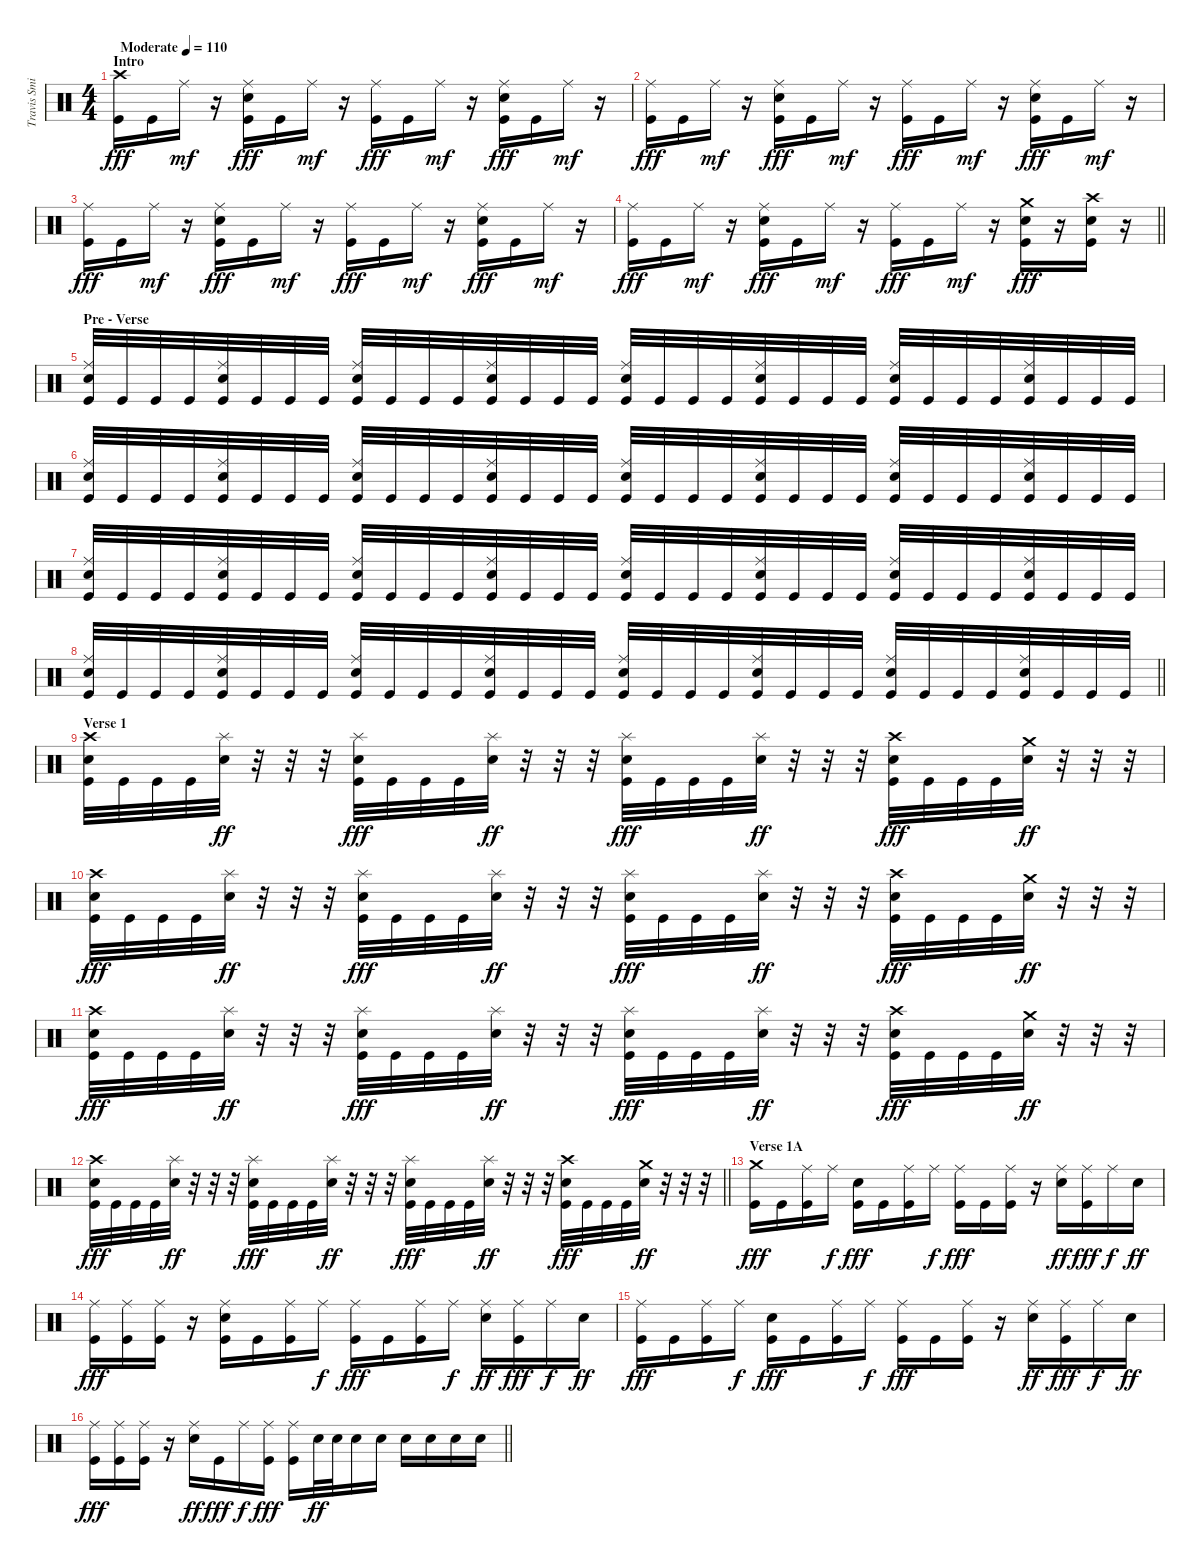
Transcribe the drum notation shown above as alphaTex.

\track ("Travis Smith" "Travis Smi") {instrument percussion}
\staff {score}
\articulation defaults
\ts (4 4)
\section ("" "Intro")
\tempo (110 "Moderate")
\clef neutral
\ks c
("Crash high (hit)" "Kick (hit)").16{dy fff} "Kick (hit)".16 "Ride (middle)".16{dy mf} r.16 ("Ride (middle)" "Electric Snare (hit)" "Kick (hit)").16{dy fff} "Kick (hit)".16 "Ride (middle)".16{dy mf} r.16 ("Ride (middle)" "Kick (hit)").16{dy fff} "Kick (hit)".16 "Ride (middle)".16{dy mf} r.16 ("Ride (middle)" "Electric Snare (hit)" "Kick (hit)").16{dy fff} "Kick (hit)".16 "Ride (middle)".16{dy mf} r.16 |
("Ride (middle)" "Kick (hit)").16{dy fff} "Kick (hit)".16 "Ride (middle)".16{dy mf} r.16 ("Ride (middle)" "Electric Snare (hit)" "Kick (hit)").16{dy fff} "Kick (hit)".16 "Ride (middle)".16{dy mf} r.16 ("Ride (middle)" "Kick (hit)").16{dy fff} "Kick (hit)".16 "Ride (middle)".16{dy mf} r.16 ("Ride (middle)" "Electric Snare (hit)" "Kick (hit)").16{dy fff} "Kick (hit)".16 "Ride (middle)".16{dy mf} r.16 |
("Ride (middle)" "Kick (hit)").16{dy fff} "Kick (hit)".16 "Ride (middle)".16{dy mf} r.16 ("Ride (middle)" "Electric Snare (hit)" "Kick (hit)").16{dy fff} "Kick (hit)".16 "Ride (middle)".16{dy mf} r.16 ("Ride (middle)" "Kick (hit)").16{dy fff} "Kick (hit)".16 "Ride (middle)".16{dy mf} r.16 ("Ride (middle)" "Electric Snare (hit)" "Kick (hit)").16{dy fff} "Kick (hit)".16 "Ride (middle)".16{dy mf} r.16 |
\barLineRight lightlight
("Ride (middle)" "Kick (hit)").16{dy fff} "Kick (hit)".16 "Ride (middle)".16{dy mf} r.16 ("Ride (middle)" "Electric Snare (hit)" "Kick (hit)").16{dy fff} "Kick (hit)".16 "Ride (middle)".16{dy mf} r.16 ("Ride (middle)" "Kick (hit)").16{dy fff} "Kick (hit)".16 "Ride (middle)".16{dy mf} r.16 ("Crash medium (hit)" "Electric Snare (hit)" "Kick (hit)").16{dy fff} r.16 ("Crash high (hit)" "Electric Snare (hit)" "Kick (hit)").16 r.16 |
\section ("" "Pre - Verse")
("Ride (middle)" "Electric Snare (hit)" "Kick (hit)").32 "Kick (hit)".32 "Kick (hit)".32 "Kick (hit)".32 ("Ride (middle)" "Electric Snare (hit)" "Kick (hit)").32 "Kick (hit)".32 "Kick (hit)".32 "Kick (hit)".32 ("Ride (middle)" "Electric Snare (hit)" "Kick (hit)").32 "Kick (hit)".32 "Kick (hit)".32 "Kick (hit)".32 ("Ride (middle)" "Electric Snare (hit)" "Kick (hit)").32 "Kick (hit)".32 "Kick (hit)".32 "Kick (hit)".32 ("Ride (middle)" "Electric Snare (hit)" "Kick (hit)").32 "Kick (hit)".32 "Kick (hit)".32 "Kick (hit)".32 ("Ride (middle)" "Electric Snare (hit)" "Kick (hit)").32 "Kick (hit)".32 "Kick (hit)".32 "Kick (hit)".32 ("Ride (middle)" "Electric Snare (hit)" "Kick (hit)").32 "Kick (hit)".32 "Kick (hit)".32 "Kick (hit)".32 ("Ride (middle)" "Electric Snare (hit)" "Kick (hit)").32 "Kick (hit)".32 "Kick (hit)".32 "Kick (hit)".32 |
("Ride (middle)" "Electric Snare (hit)" "Kick (hit)").32 "Kick (hit)".32 "Kick (hit)".32 "Kick (hit)".32 ("Ride (middle)" "Electric Snare (hit)" "Kick (hit)").32 "Kick (hit)".32 "Kick (hit)".32 "Kick (hit)".32 ("Ride (middle)" "Electric Snare (hit)" "Kick (hit)").32 "Kick (hit)".32 "Kick (hit)".32 "Kick (hit)".32 ("Ride (middle)" "Electric Snare (hit)" "Kick (hit)").32 "Kick (hit)".32 "Kick (hit)".32 "Kick (hit)".32 ("Ride (middle)" "Electric Snare (hit)" "Kick (hit)").32 "Kick (hit)".32 "Kick (hit)".32 "Kick (hit)".32 ("Ride (middle)" "Electric Snare (hit)" "Kick (hit)").32 "Kick (hit)".32 "Kick (hit)".32 "Kick (hit)".32 ("Ride (middle)" "Electric Snare (hit)" "Kick (hit)").32 "Kick (hit)".32 "Kick (hit)".32 "Kick (hit)".32 ("Ride (middle)" "Electric Snare (hit)" "Kick (hit)").32 "Kick (hit)".32 "Kick (hit)".32 "Kick (hit)".32 |
("Ride (middle)" "Electric Snare (hit)" "Kick (hit)").32 "Kick (hit)".32 "Kick (hit)".32 "Kick (hit)".32 ("Ride (middle)" "Electric Snare (hit)" "Kick (hit)").32 "Kick (hit)".32 "Kick (hit)".32 "Kick (hit)".32 ("Ride (middle)" "Electric Snare (hit)" "Kick (hit)").32 "Kick (hit)".32 "Kick (hit)".32 "Kick (hit)".32 ("Ride (middle)" "Electric Snare (hit)" "Kick (hit)").32 "Kick (hit)".32 "Kick (hit)".32 "Kick (hit)".32 ("Ride (middle)" "Electric Snare (hit)" "Kick (hit)").32 "Kick (hit)".32 "Kick (hit)".32 "Kick (hit)".32 ("Ride (middle)" "Electric Snare (hit)" "Kick (hit)").32 "Kick (hit)".32 "Kick (hit)".32 "Kick (hit)".32 ("Ride (middle)" "Electric Snare (hit)" "Kick (hit)").32 "Kick (hit)".32 "Kick (hit)".32 "Kick (hit)".32 ("Ride (middle)" "Electric Snare (hit)" "Kick (hit)").32 "Kick (hit)".32 "Kick (hit)".32 "Kick (hit)".32 |
\barLineRight lightlight
("Ride (middle)" "Electric Snare (hit)" "Kick (hit)").32 "Kick (hit)".32 "Kick (hit)".32 "Kick (hit)".32 ("Ride (middle)" "Electric Snare (hit)" "Kick (hit)").32 "Kick (hit)".32 "Kick (hit)".32 "Kick (hit)".32 ("Ride (middle)" "Electric Snare (hit)" "Kick (hit)").32 "Kick (hit)".32 "Kick (hit)".32 "Kick (hit)".32 ("Ride (middle)" "Electric Snare (hit)" "Kick (hit)").32 "Kick (hit)".32 "Kick (hit)".32 "Kick (hit)".32 ("Ride (middle)" "Electric Snare (hit)" "Kick (hit)").32 "Kick (hit)".32 "Kick (hit)".32 "Kick (hit)".32 ("Ride (middle)" "Electric Snare (hit)" "Kick (hit)").32 "Kick (hit)".32 "Kick (hit)".32 "Kick (hit)".32 ("Ride (middle)" "Electric Snare (hit)" "Kick (hit)").32 "Kick (hit)".32 "Kick (hit)".32 "Kick (hit)".32 ("Ride (middle)" "Electric Snare (hit)" "Kick (hit)").32 "Kick (hit)".32 "Kick (hit)".32 "Kick (hit)".32 |
\section ("" "Verse 1")
("Crash high (hit)" "Electric Snare (hit)" "Kick (hit)").32 "Kick (hit)".32 "Kick (hit)".32 "Kick (hit)".32 ("Splash (hit)" "Electric Snare (hit)").32{dy ff} r.32 r.32 r.32 ("Splash (hit)" "Electric Snare (hit)" "Kick (hit)").32{dy fff} "Kick (hit)".32 "Kick (hit)".32 "Kick (hit)".32 ("Splash (hit)" "Electric Snare (hit)").32{dy ff} r.32 r.32 r.32 ("Splash (hit)" "Electric Snare (hit)" "Kick (hit)").32{dy fff} "Kick (hit)".32 "Kick (hit)".32 "Kick (hit)".32 ("Splash (hit)" "Electric Snare (hit)").32{dy ff} r.32 r.32 r.32 ("Crash high (hit)" "Electric Snare (hit)" "Kick (hit)").32{dy fff} "Kick (hit)".32 "Kick (hit)".32 "Kick (hit)".32 ("Crash medium (hit)" "Electric Snare (hit)").32{dy ff} r.32 r.32 r.32 |
("Crash high (hit)" "Electric Snare (hit)" "Kick (hit)").32{dy fff} "Kick (hit)".32 "Kick (hit)".32 "Kick (hit)".32 ("Splash (hit)" "Electric Snare (hit)").32{dy ff} r.32 r.32 r.32 ("Splash (hit)" "Electric Snare (hit)" "Kick (hit)").32{dy fff} "Kick (hit)".32 "Kick (hit)".32 "Kick (hit)".32 ("Splash (hit)" "Electric Snare (hit)").32{dy ff} r.32 r.32 r.32 ("Splash (hit)" "Electric Snare (hit)" "Kick (hit)").32{dy fff} "Kick (hit)".32 "Kick (hit)".32 "Kick (hit)".32 ("Splash (hit)" "Electric Snare (hit)").32{dy ff} r.32 r.32 r.32 ("Crash high (hit)" "Electric Snare (hit)" "Kick (hit)").32{dy fff} "Kick (hit)".32 "Kick (hit)".32 "Kick (hit)".32 ("Crash medium (hit)" "Electric Snare (hit)").32{dy ff} r.32 r.32 r.32 |
("Crash high (hit)" "Electric Snare (hit)" "Kick (hit)").32{dy fff} "Kick (hit)".32 "Kick (hit)".32 "Kick (hit)".32 ("Splash (hit)" "Electric Snare (hit)").32{dy ff} r.32 r.32 r.32 ("Splash (hit)" "Electric Snare (hit)" "Kick (hit)").32{dy fff} "Kick (hit)".32 "Kick (hit)".32 "Kick (hit)".32 ("Splash (hit)" "Electric Snare (hit)").32{dy ff} r.32 r.32 r.32 ("Splash (hit)" "Electric Snare (hit)" "Kick (hit)").32{dy fff} "Kick (hit)".32 "Kick (hit)".32 "Kick (hit)".32 ("Splash (hit)" "Electric Snare (hit)").32{dy ff} r.32 r.32 r.32 ("Crash high (hit)" "Electric Snare (hit)" "Kick (hit)").32{dy fff} "Kick (hit)".32 "Kick (hit)".32 "Kick (hit)".32 ("Crash medium (hit)" "Electric Snare (hit)").32{dy ff} r.32 r.32 r.32 |
\barLineRight lightlight
("Crash high (hit)" "Electric Snare (hit)" "Kick (hit)").32{dy fff} "Kick (hit)".32 "Kick (hit)".32 "Kick (hit)".32 ("Splash (hit)" "Electric Snare (hit)").32{dy ff} r.32 r.32 r.32 ("Splash (hit)" "Electric Snare (hit)" "Kick (hit)").32{dy fff} "Kick (hit)".32 "Kick (hit)".32 "Kick (hit)".32 ("Splash (hit)" "Electric Snare (hit)").32{dy ff} r.32 r.32 r.32 ("Splash (hit)" "Electric Snare (hit)" "Kick (hit)").32{dy fff} "Kick (hit)".32 "Kick (hit)".32 "Kick (hit)".32 ("Splash (hit)" "Electric Snare (hit)").32{dy ff} r.32 r.32 r.32 ("Crash high (hit)" "Electric Snare (hit)" "Kick (hit)").32{dy fff} "Kick (hit)".32 "Kick (hit)".32 "Kick (hit)".32 ("Crash medium (hit)" "Electric Snare (hit)").32{dy ff} r.32 r.32 r.32 |
\section ("" "Verse 1A")
("Crash medium (hit)" "Kick (hit)").16{dy fff} "Kick (hit)".16 ("Ride (middle)" "Kick (hit)").16 "Ride (middle)".16{dy f} ("Electric Snare (hit)" "Kick (hit)").16{dy fff} "Kick (hit)".16 ("Ride (middle)" "Kick (hit)").16 "Ride (middle)".16{dy f} ("Ride (middle)" "Kick (hit)").16{dy fff} "Kick (hit)".16 ("Ride (middle)" "Kick (hit)").16 r.16 ("Ride (middle)" "Electric Snare (hit)").16{dy ff} ("Ride (middle)" "Kick (hit)").16{dy fff} "Ride (middle)".16{dy f} "Electric Snare (hit)".16{dy ff} |
("Ride (middle)" "Kick (hit)").16{dy fff} ("Ride (middle)" "Kick (hit)").16 ("Ride (middle)" "Kick (hit)").16 r.16 ("Ride (middle)" "Electric Snare (hit)" "Kick (hit)").16 "Kick (hit)".16 ("Ride (middle)" "Kick (hit)").16 "Ride (middle)".16{dy f} ("Ride (middle)" "Kick (hit)").16{dy fff} "Kick (hit)".16 ("Ride (middle)" "Kick (hit)").16 "Ride (middle)".16{dy f} ("Ride (middle)" "Electric Snare (hit)").16{dy ff} ("Ride (middle)" "Kick (hit)").16{dy fff} "Ride (middle)".16{dy f} "Electric Snare (hit)".16{dy ff} |
("Ride (middle)" "Kick (hit)").16{dy fff} "Kick (hit)".16 ("Ride (middle)" "Kick (hit)").16 "Ride (middle)".16{dy f} ("Electric Snare (hit)" "Kick (hit)").16{dy fff} "Kick (hit)".16 ("Ride (middle)" "Kick (hit)").16 "Ride (middle)".16{dy f} ("Ride (middle)" "Kick (hit)").16{dy fff} "Kick (hit)".16 ("Ride (middle)" "Kick (hit)").16 r.16 ("Ride (middle)" "Electric Snare (hit)").16{dy ff} ("Ride (middle)" "Kick (hit)").16{dy fff} "Ride (middle)".16{dy f} "Electric Snare (hit)".16{dy ff} |
\barLineRight lightlight
("Ride (middle)" "Kick (hit)").16{dy fff} ("Ride (middle)" "Kick (hit)").16 ("Ride (middle)" "Kick (hit)").16 r.16 ("Ride (middle)" "Electric Snare (hit)").16{dy ff} "Kick (hit)".16{dy fff} "Ride (middle)".16{dy f} ("Ride (middle)" "Kick (hit)").16{dy fff} ("Ride (middle)" "Kick (hit)").16 "Electric Snare (hit)".32{dy ff} "Electric Snare (hit)".32 "Electric Snare (hit)".16 "Electric Snare (hit)".16 "Electric Snare (hit)".16 "Electric Snare (hit)".16 "Electric Snare (hit)".16 "Electric Snare (hit)".16
